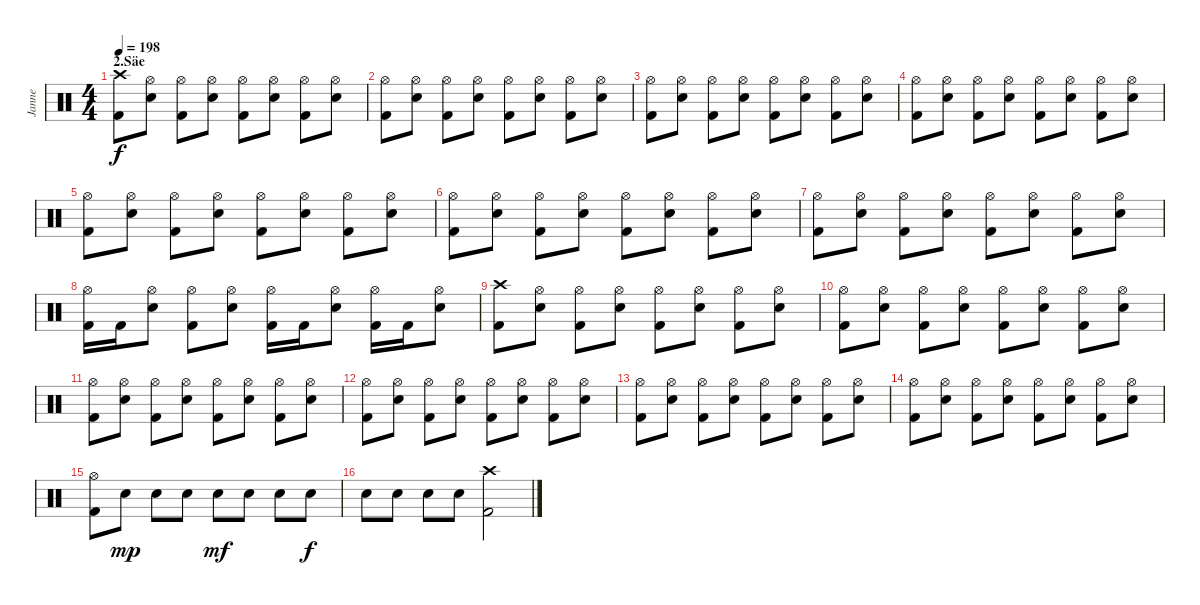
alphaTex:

\track ("Janne" "Janne") {instrument percussion}
\staff {score}
\articulation defaults
\ts (4 4)
\section ("" "2.Säe")
\tempo 198
\clef neutral
\ks c
("Crash high (hit)" "Kick (hit) 2").8{dy f} ("Hi-Hat (open)" "Electric Snare (hit)").8 ("Hi-Hat (open)" "Kick (hit) 2").8 ("Hi-Hat (open)" "Electric Snare (hit)").8 ("Hi-Hat (open)" "Kick (hit) 2").8 ("Hi-Hat (open)" "Electric Snare (hit)").8 ("Hi-Hat (open)" "Kick (hit) 2").8 ("Hi-Hat (open)" "Electric Snare (hit)").8 |
("Hi-Hat (open)" "Kick (hit) 2").8 ("Hi-Hat (open)" "Electric Snare (hit)").8 ("Hi-Hat (open)" "Kick (hit) 2").8 ("Hi-Hat (open)" "Electric Snare (hit)").8 ("Hi-Hat (open)" "Kick (hit) 2").8 ("Hi-Hat (open)" "Electric Snare (hit)").8 ("Hi-Hat (open)" "Kick (hit) 2").8 ("Hi-Hat (open)" "Electric Snare (hit)").8 |
("Hi-Hat (open)" "Kick (hit) 2").8 ("Hi-Hat (open)" "Electric Snare (hit)").8 ("Hi-Hat (open)" "Kick (hit) 2").8 ("Hi-Hat (open)" "Electric Snare (hit)").8 ("Hi-Hat (open)" "Kick (hit) 2").8 ("Hi-Hat (open)" "Electric Snare (hit)").8 ("Hi-Hat (open)" "Kick (hit) 2").8 ("Hi-Hat (open)" "Electric Snare (hit)").8 |
("Hi-Hat (open)" "Kick (hit) 2").8 ("Hi-Hat (open)" "Electric Snare (hit)").8 ("Hi-Hat (open)" "Kick (hit) 2").8 ("Hi-Hat (open)" "Electric Snare (hit)").8 ("Hi-Hat (open)" "Kick (hit) 2").8 ("Hi-Hat (open)" "Electric Snare (hit)").8 ("Hi-Hat (open)" "Kick (hit) 2").8 ("Hi-Hat (open)" "Electric Snare (hit)").8 |
("Hi-Hat (open)" "Kick (hit) 2").8 ("Hi-Hat (open)" "Electric Snare (hit)").8 ("Hi-Hat (open)" "Kick (hit) 2").8 ("Hi-Hat (open)" "Electric Snare (hit)").8 ("Hi-Hat (open)" "Kick (hit) 2").8 ("Hi-Hat (open)" "Electric Snare (hit)").8 ("Hi-Hat (open)" "Kick (hit) 2").8 ("Hi-Hat (open)" "Electric Snare (hit)").8 |
("Hi-Hat (open)" "Kick (hit) 2").8 ("Hi-Hat (open)" "Electric Snare (hit)").8 ("Hi-Hat (open)" "Kick (hit) 2").8 ("Hi-Hat (open)" "Electric Snare (hit)").8 ("Hi-Hat (open)" "Kick (hit) 2").8 ("Hi-Hat (open)" "Electric Snare (hit)").8 ("Hi-Hat (open)" "Kick (hit) 2").8 ("Hi-Hat (open)" "Electric Snare (hit)").8 |
("Hi-Hat (open)" "Kick (hit) 2").8 ("Hi-Hat (open)" "Electric Snare (hit)").8 ("Hi-Hat (open)" "Kick (hit) 2").8 ("Hi-Hat (open)" "Electric Snare (hit)").8 ("Hi-Hat (open)" "Kick (hit) 2").8 ("Hi-Hat (open)" "Electric Snare (hit)").8 ("Hi-Hat (open)" "Kick (hit) 2").8 ("Hi-Hat (open)" "Electric Snare (hit)").8 |
("Hi-Hat (open)" "Kick (hit) 2").16 "Kick (hit) 2".16 ("Hi-Hat (open)" "Electric Snare (hit)").8 ("Hi-Hat (open)" "Kick (hit) 2").8 ("Hi-Hat (open)" "Electric Snare (hit)").8 ("Hi-Hat (open)" "Kick (hit) 2").16 "Kick (hit) 2".16 ("Hi-Hat (open)" "Electric Snare (hit)").8 ("Hi-Hat (open)" "Kick (hit) 2").16 "Kick (hit) 2".16 ("Hi-Hat (open)" "Electric Snare (hit)").8 |
("Crash high (hit)" "Kick (hit) 2").8 ("Hi-Hat (open)" "Electric Snare (hit)").8 ("Hi-Hat (open)" "Kick (hit) 2").8 ("Hi-Hat (open)" "Electric Snare (hit)").8 ("Hi-Hat (open)" "Kick (hit) 2").8 ("Hi-Hat (open)" "Electric Snare (hit)").8 ("Hi-Hat (open)" "Kick (hit) 2").8 ("Hi-Hat (open)" "Electric Snare (hit)").8 |
("Hi-Hat (open)" "Kick (hit) 2").8 ("Hi-Hat (open)" "Electric Snare (hit)").8 ("Hi-Hat (open)" "Kick (hit) 2").8 ("Hi-Hat (open)" "Electric Snare (hit)").8 ("Hi-Hat (open)" "Kick (hit) 2").8 ("Hi-Hat (open)" "Electric Snare (hit)").8 ("Hi-Hat (open)" "Kick (hit) 2").8 ("Hi-Hat (open)" "Electric Snare (hit)").8 |
("Hi-Hat (open)" "Kick (hit) 2").8 ("Hi-Hat (open)" "Electric Snare (hit)").8 ("Hi-Hat (open)" "Kick (hit) 2").8 ("Hi-Hat (open)" "Electric Snare (hit)").8 ("Hi-Hat (open)" "Kick (hit) 2").8 ("Hi-Hat (open)" "Electric Snare (hit)").8 ("Hi-Hat (open)" "Kick (hit) 2").8 ("Hi-Hat (open)" "Electric Snare (hit)").8 |
("Hi-Hat (open)" "Kick (hit) 2").8 ("Hi-Hat (open)" "Electric Snare (hit)").8 ("Hi-Hat (open)" "Kick (hit) 2").8 ("Hi-Hat (open)" "Electric Snare (hit)").8 ("Hi-Hat (open)" "Kick (hit) 2").8 ("Hi-Hat (open)" "Electric Snare (hit)").8 ("Hi-Hat (open)" "Kick (hit) 2").8 ("Hi-Hat (open)" "Electric Snare (hit)").8 |
("Hi-Hat (open)" "Kick (hit) 2").8 ("Hi-Hat (open)" "Electric Snare (hit)").8 ("Hi-Hat (open)" "Kick (hit) 2").8 ("Hi-Hat (open)" "Electric Snare (hit)").8 ("Hi-Hat (open)" "Kick (hit) 2").8 ("Hi-Hat (open)" "Electric Snare (hit)").8 ("Hi-Hat (open)" "Kick (hit) 2").8 ("Hi-Hat (open)" "Electric Snare (hit)").8 |
("Hi-Hat (open)" "Kick (hit) 2").8 ("Hi-Hat (open)" "Electric Snare (hit)").8 ("Hi-Hat (open)" "Kick (hit) 2").8 ("Hi-Hat (open)" "Electric Snare (hit)").8 ("Hi-Hat (open)" "Kick (hit) 2").8 ("Hi-Hat (open)" "Electric Snare (hit)").8 ("Hi-Hat (open)" "Kick (hit) 2").8 ("Hi-Hat (open)" "Electric Snare (hit)").8 |
("Hi-Hat (open)" "Kick (hit) 2").8 "Electric Snare (hit)".8{dy mp} "Electric Snare (hit)".8 "Electric Snare (hit)".8 "Electric Snare (hit)".8{dy mf} "Electric Snare (hit)".8 "Electric Snare (hit)".8 "Electric Snare (hit)".8{dy f} |
"Electric Snare (hit)".8 "Electric Snare (hit)".8 "Electric Snare (hit)".8 "Electric Snare (hit)".8 ("Crash high (hit)" "Kick (hit) 2").2
